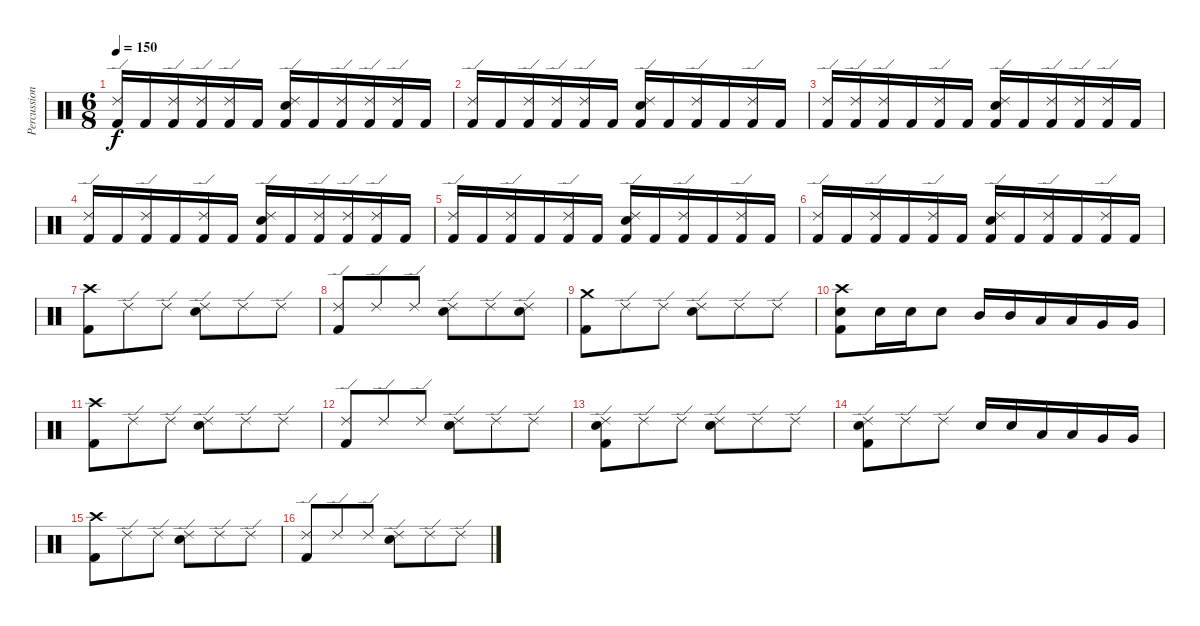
\track ("Percussion" "Percussion") {instrument percussion}
\staff {score}
\articulation defaults
\ts (6 8)
\tempo 150
\clef neutral
\ks c
("Ride (edge) 2" "Kick (hit) 2").16{dy f} "Kick (hit) 2".16 ("Ride (edge) 2" "Kick (hit) 2").16 ("Ride (edge) 2" "Kick (hit) 2").16 ("Ride (edge) 2" "Kick (hit) 2").16 "Kick (hit) 2".16 ("Ride (edge) 2" "Electric Snare (hit)" "Kick (hit) 2").16 "Kick (hit) 2".16 ("Ride (edge) 2" "Kick (hit) 2").16 ("Ride (edge) 2" "Kick (hit) 2").16 ("Ride (edge) 2" "Kick (hit) 2").16 "Kick (hit) 2".16 |
("Ride (edge) 2" "Kick (hit) 2").16 "Kick (hit) 2".16 ("Ride (edge) 2" "Kick (hit) 2").16 ("Ride (edge) 2" "Kick (hit) 2").16 ("Ride (edge) 2" "Kick (hit) 2").16 "Kick (hit) 2".16 ("Ride (edge) 2" "Electric Snare (hit)" "Kick (hit) 2").16 "Kick (hit) 2".16 ("Ride (edge) 2" "Kick (hit) 2").16 "Kick (hit) 2".16 ("Ride (edge) 2" "Kick (hit) 2").16 "Kick (hit) 2".16 |
("Ride (edge) 2" "Kick (hit) 2").16 ("Ride (edge) 2" "Kick (hit) 2").16 ("Ride (edge) 2" "Kick (hit) 2").16 "Kick (hit) 2".16 ("Ride (edge) 2" "Kick (hit) 2").16 "Kick (hit) 2".16 ("Ride (edge) 2" "Electric Snare (hit)" "Kick (hit) 2").16 "Kick (hit) 2".16 ("Ride (edge) 2" "Kick (hit) 2").16 ("Ride (edge) 2" "Kick (hit) 2").16 ("Ride (edge) 2" "Kick (hit) 2").16 "Kick (hit) 2".16 |
("Ride (edge) 2" "Kick (hit) 2").16 "Kick (hit) 2".16 ("Ride (edge) 2" "Kick (hit) 2").16 "Kick (hit) 2".16 ("Ride (edge) 2" "Kick (hit) 2").16 "Kick (hit) 2".16 ("Ride (edge) 2" "Electric Snare (hit)" "Kick (hit) 2").16 "Kick (hit) 2".16 ("Ride (edge) 2" "Kick (hit) 2").16 ("Ride (edge) 2" "Kick (hit) 2").16 ("Ride (edge) 2" "Kick (hit) 2").16 "Kick (hit) 2".16 |
("Ride (edge) 2" "Kick (hit) 2").16 "Kick (hit) 2".16 ("Ride (edge) 2" "Kick (hit) 2").16 "Kick (hit) 2".16 ("Ride (edge) 2" "Kick (hit) 2").16 "Kick (hit) 2".16 ("Ride (edge) 2" "Electric Snare (hit)" "Kick (hit) 2").16 "Kick (hit) 2".16 ("Ride (edge) 2" "Kick (hit) 2").16 "Kick (hit) 2".16 ("Ride (edge) 2" "Kick (hit) 2").16 "Kick (hit) 2".16 |
("Ride (edge) 2" "Kick (hit) 2").16 "Kick (hit) 2".16 ("Ride (edge) 2" "Kick (hit) 2").16 "Kick (hit) 2".16 ("Ride (edge) 2" "Kick (hit) 2").16 "Kick (hit) 2".16 ("Ride (edge) 2" "Electric Snare (hit)" "Kick (hit) 2").16 "Kick (hit) 2".16 ("Ride (edge) 2" "Kick (hit) 2").16 "Kick (hit) 2".16 ("Ride (edge) 2" "Kick (hit) 2").16 "Kick (hit) 2".16 |
("Crash high (hit)" "Kick (hit) 2").8 "Ride (edge) 2".8 "Ride (edge) 2".8 ("Ride (edge) 2" "Electric Snare (hit)").8 "Ride (edge) 2".8 "Ride (edge) 2".8 |
("Ride (edge) 2" "Kick (hit) 2").8 "Ride (edge) 2".8 "Ride (edge) 2".8 ("Ride (edge) 2" "Electric Snare (hit)").8 "Ride (edge) 2".8 ("Ride (edge) 2" "Electric Snare (hit)").8 |
("Crash medium (hit)" "Kick (hit) 2").8 "Ride (edge) 2".8 "Ride (edge) 2".8 ("Ride (edge) 2" "Electric Snare (hit)").8 "Ride (edge) 2".8 "Ride (edge) 2".8 |
("Crash high (hit)" "Electric Snare (hit)" "Kick (hit) 2").8 "Electric Snare (hit)".16 "Electric Snare (hit)".16 "Electric Snare (hit)".8 "Mid Tom (hit)".16 "Mid Tom (hit)".16 "Low Tom (hit)".16 "Low Tom (hit)".16 "Very Low Tom (hit)".16 "Very Low Tom (hit)".16 |
("Crash high (hit)" "Kick (hit) 2").8 "Ride (edge) 2".8 "Ride (edge) 2".8 ("Ride (edge) 2" "Electric Snare (hit)").8 "Ride (edge) 2".8 "Ride (edge) 2".8 |
("Ride (edge) 2" "Kick (hit) 2").8 "Ride (edge) 2".8 "Ride (edge) 2".8 ("Ride (edge) 2" "Electric Snare (hit)").8 "Ride (edge) 2".8 "Ride (edge) 2".8 |
("Ride (edge) 2" "Electric Snare (hit)" "Kick (hit) 2").8 "Ride (edge) 2".8 "Ride (edge) 2".8 ("Ride (edge) 2" "Electric Snare (hit)").8 "Ride (edge) 2".8 "Ride (edge) 2".8 |
("Ride (edge) 2" "Electric Snare (hit)" "Kick (hit) 2").8 "Ride (edge) 2".8 "Ride (edge) 2".8 "Electric Snare (hit)".16 "Electric Snare (hit)".16 "Low Tom (hit)".16 "Low Tom (hit)".16 "Very Low Tom (hit)".16 "Very Low Tom (hit)".16 |
("Crash high (hit)" "Kick (hit) 2").8 "Ride (edge) 2".8 "Ride (edge) 2".8 ("Ride (edge) 2" "Electric Snare (hit)").8 "Ride (edge) 2".8 "Ride (edge) 2".8 |
("Ride (edge) 2" "Kick (hit) 2").8 "Ride (edge) 2".8 "Ride (edge) 2".8 ("Ride (edge) 2" "Electric Snare (hit)").8 "Ride (edge) 2".8 "Ride (edge) 2".8
